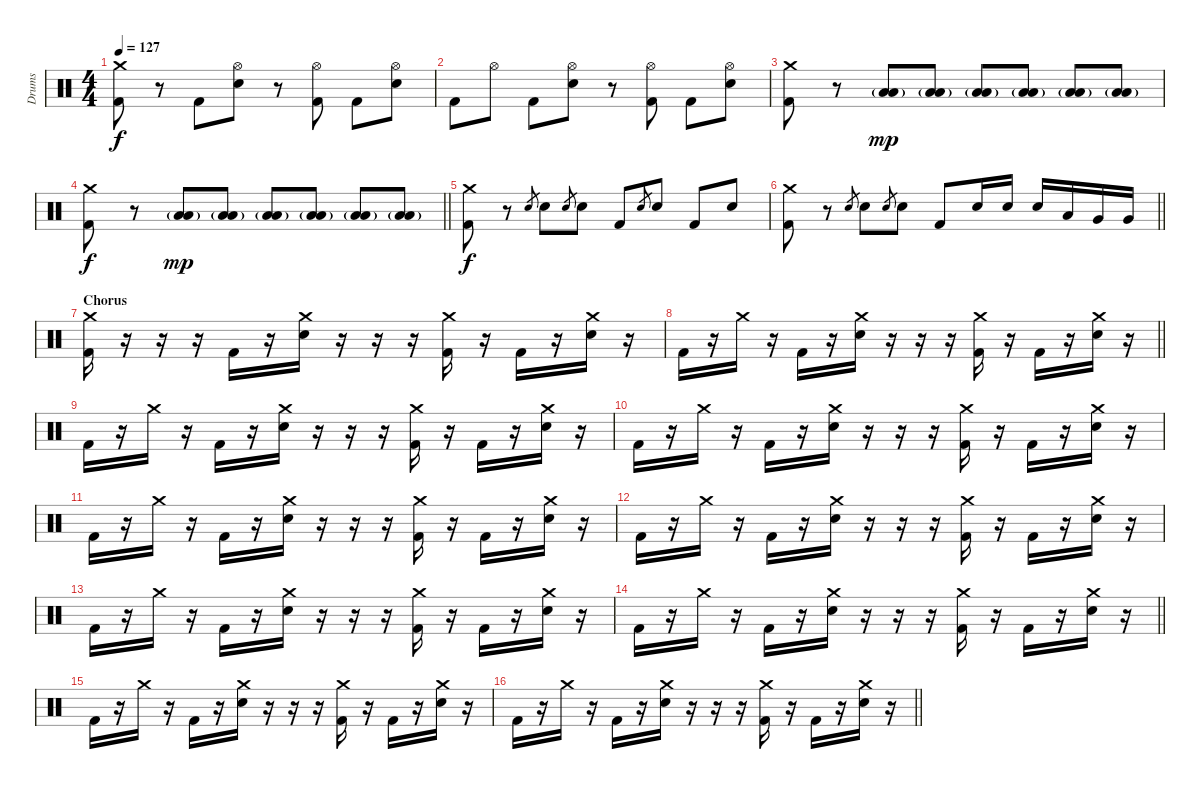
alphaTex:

\track ("Drums" "Drums") {instrument percussion}
\staff {score}
\articulation defaults
\ts (4 4)
\tempo 127
\clef neutral
\ks c
("Crash medium (hit)" "Kick (hit) 2").8{dy f} r.8 "Kick (hit) 2".8 ("Hi-Hat (open)" "Electric Snare (hit)").8 r.8 ("Hi-Hat (open)" "Kick (hit) 2").8 "Kick (hit) 2".8 ("Hi-Hat (open)" "Electric Snare (hit)").8 |
"Kick (hit) 2".8 "Hi-Hat (open)".8 "Kick (hit) 2".8 ("Hi-Hat (open)" "Electric Snare (hit)").8 r.8 ("Hi-Hat (open)" "Kick (hit) 2").8 "Kick (hit) 2".8 ("Hi-Hat (open)" "Electric Snare (hit)").8 |
("Crash medium (hit)" "Kick (hit) 2").8 r.8 ("Low Tom (hit)" "Low Floor Tom (hit)"{g}).8{dy mp} ("Low Tom (hit)" "Low Floor Tom (hit)"{g}).8 ("Low Tom (hit)" "Low Floor Tom (hit)"{g}).8 ("Low Tom (hit)" "Low Floor Tom (hit)"{g}).8 ("Low Tom (hit)" "Low Floor Tom (hit)"{g}).8 ("Low Tom (hit)" "Low Floor Tom (hit)"{g}).8 |
\barLineRight lightlight
("Crash medium (hit)" "Kick (hit) 2").8{dy f} r.8 ("Low Tom (hit)" "Low Floor Tom (hit)"{g}).8{dy mp} ("Low Tom (hit)" "Low Floor Tom (hit)"{g}).8 ("Low Tom (hit)" "Low Floor Tom (hit)"{g}).8 ("Low Tom (hit)" "Low Floor Tom (hit)"{g}).8 ("Low Tom (hit)" "Low Floor Tom (hit)"{g}).8 ("Low Tom (hit)" "Low Floor Tom (hit)"{g}).8 |
("Crash medium (hit)" "Kick (hit) 2").8{dy f} r.8 "Electric Snare (hit)".8{gr} "Electric Snare (hit)".8 "Electric Snare (hit)".8{gr} "Electric Snare (hit)".8 "Kick (hit) 2".8 "Electric Snare (hit)".8{gr} "Electric Snare (hit)".8 "Kick (hit) 2".8 "Electric Snare (hit)".8 |
\barLineRight lightlight
("Crash medium (hit)" "Kick (hit) 2").8 r.8 "Electric Snare (hit)".8{gr} "Electric Snare (hit)".8 "Electric Snare (hit)".8{gr} "Electric Snare (hit)".8 "Kick (hit) 2".8 "Electric Snare (hit)".16 "Electric Snare (hit)".16 "Electric Snare (hit)".16 "Low Tom (hit)".16 "Very Low Tom (hit)".16 "Very Low Tom (hit)".16 |
\section ("" "Chorus")
("Crash medium (hit)" "Kick (hit) 2").16 r.16 r.16 r.16 "Kick (hit) 2".16 r.16 ("Crash medium (hit)" "Electric Snare (hit)").16 r.16 r.16 r.16 ("Crash medium (hit)" "Kick (hit) 2").16 r.16 "Kick (hit) 2".16 r.16 ("Crash medium (hit)" "Electric Snare (hit)").16 r.16 |
\barLineRight lightlight "Kick (hit) 2".16
r.16 "Crash medium (hit)".16 r.16 "Kick (hit) 2".16 r.16 ("Crash medium (hit)" "Electric Snare (hit)").16 r.16 r.16 r.16 ("Crash medium (hit)" "Kick (hit) 2").16 r.16 "Kick (hit) 2".16 r.16 ("Crash medium (hit)" "Electric Snare (hit)").16 r.16 |
"Kick (hit) 2".16 r.16 "Crash medium (hit)".16 r.16 "Kick (hit) 2".16 r.16 ("Crash medium (hit)" "Electric Snare (hit)").16 r.16 r.16 r.16 ("Crash medium (hit)" "Kick (hit) 2").16 r.16 "Kick (hit) 2".16 r.16 ("Crash medium (hit)" "Electric Snare (hit)").16 r.16 |
"Kick (hit) 2".16 r.16 "Crash medium (hit)".16 r.16 "Kick (hit) 2".16 r.16 ("Crash medium (hit)" "Electric Snare (hit)").16 r.16 r.16 r.16 ("Crash medium (hit)" "Kick (hit) 2").16 r.16 "Kick (hit) 2".16 r.16 ("Crash medium (hit)" "Electric Snare (hit)").16 r.16 |
"Kick (hit) 2".16 r.16 "Crash medium (hit)".16 r.16 "Kick (hit) 2".16 r.16 ("Crash medium (hit)" "Electric Snare (hit)").16 r.16 r.16 r.16 ("Crash medium (hit)" "Kick (hit) 2").16 r.16 "Kick (hit) 2".16 r.16 ("Crash medium (hit)" "Electric Snare (hit)").16 r.16 |
"Kick (hit) 2".16 r.16 "Crash medium (hit)".16 r.16 "Kick (hit) 2".16 r.16 ("Crash medium (hit)" "Electric Snare (hit)").16 r.16 r.16 r.16 ("Crash medium (hit)" "Kick (hit) 2").16 r.16 "Kick (hit) 2".16 r.16 ("Crash medium (hit)" "Electric Snare (hit)").16 r.16 |
"Kick (hit) 2".16 r.16 "Crash medium (hit)".16 r.16 "Kick (hit) 2".16 r.16 ("Crash medium (hit)" "Electric Snare (hit)").16 r.16 r.16 r.16 ("Crash medium (hit)" "Kick (hit) 2").16 r.16 "Kick (hit) 2".16 r.16 ("Crash medium (hit)" "Electric Snare (hit)").16 r.16 |
\barLineRight lightlight "Kick (hit) 2".16
r.16 "Crash medium (hit)".16 r.16 "Kick (hit) 2".16 r.16 ("Crash medium (hit)" "Electric Snare (hit)").16 r.16 r.16 r.16 ("Crash medium (hit)" "Kick (hit) 2").16 r.16 "Kick (hit) 2".16 r.16 ("Crash medium (hit)" "Electric Snare (hit)").16 r.16 |
"Kick (hit) 2".16 r.16 "Crash medium (hit)".16 r.16 "Kick (hit) 2".16 r.16 ("Crash medium (hit)" "Electric Snare (hit)").16 r.16 r.16 r.16 ("Crash medium (hit)" "Kick (hit) 2").16 r.16 "Kick (hit) 2".16 r.16 ("Crash medium (hit)" "Electric Snare (hit)").16 r.16 |
\barLineRight lightlight "Kick (hit) 2".16
r.16 "Crash medium (hit)".16 r.16 "Kick (hit) 2".16 r.16 ("Crash medium (hit)" "Electric Snare (hit)").16 r.16 r.16 r.16 ("Crash medium (hit)" "Kick (hit) 2").16 r.16 "Kick (hit) 2".16 r.16 ("Crash medium (hit)" "Electric Snare (hit)").16 r.16
